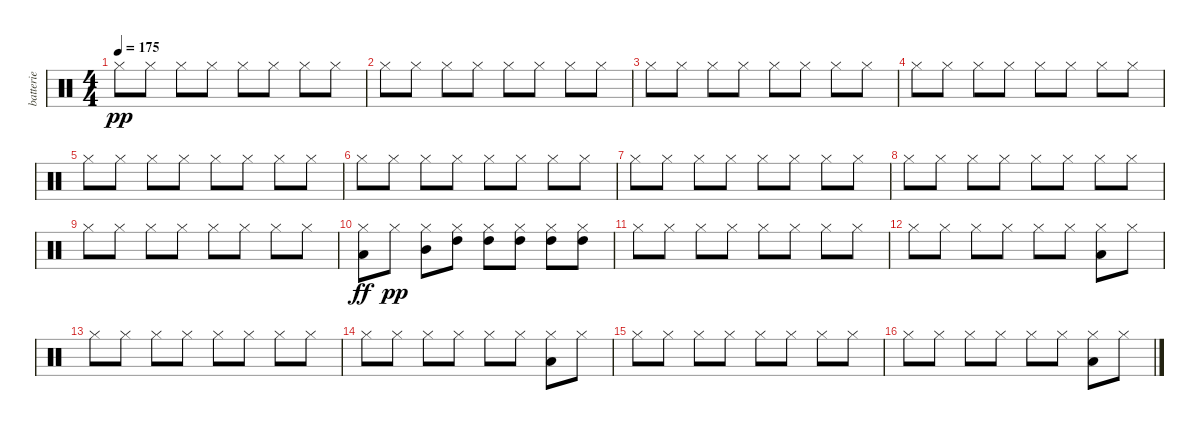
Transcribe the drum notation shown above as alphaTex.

\track ("batterie" "batterie") {instrument percussion}
\staff {score}
\articulation defaults
\ts (4 4)
\tempo 175
\clef neutral
\ks c "Hi-Hat (closed)".8{dy pp} "Hi-Hat (closed)".8 "Hi-Hat (closed)".8 "Hi-Hat (closed)".8 "Hi-Hat (closed)".8 "Hi-Hat (closed)".8 "Hi-Hat (closed)".8 "Hi-Hat (closed)".8
|
"Hi-Hat (closed)".8 "Hi-Hat (closed)".8 "Hi-Hat (closed)".8 "Hi-Hat (closed)".8 "Hi-Hat (closed)".8 "Hi-Hat (closed)".8 "Hi-Hat (closed)".8 "Hi-Hat (closed)".8 |
"Hi-Hat (closed)".8 "Hi-Hat (closed)".8 "Hi-Hat (closed)".8 "Hi-Hat (closed)".8 "Hi-Hat (closed)".8 "Hi-Hat (closed)".8 "Hi-Hat (closed)".8 "Hi-Hat (closed)".8 |
"Hi-Hat (closed)".8 "Hi-Hat (closed)".8 "Hi-Hat (closed)".8 "Hi-Hat (closed)".8 "Hi-Hat (closed)".8 "Hi-Hat (closed)".8 "Hi-Hat (closed)".8 "Hi-Hat (closed)".8 |
"Hi-Hat (closed)".8 "Hi-Hat (closed)".8 "Hi-Hat (closed)".8 "Hi-Hat (closed)".8 "Hi-Hat (closed)".8 "Hi-Hat (closed)".8 "Hi-Hat (closed)".8 "Hi-Hat (closed)".8 |
"Hi-Hat (closed)".8 "Hi-Hat (closed)".8 "Hi-Hat (closed)".8 "Hi-Hat (closed)".8 "Hi-Hat (closed)".8 "Hi-Hat (closed)".8 "Hi-Hat (closed)".8 "Hi-Hat (closed)".8 |
"Hi-Hat (closed)".8 "Hi-Hat (closed)".8 "Hi-Hat (closed)".8 "Hi-Hat (closed)".8 "Hi-Hat (closed)".8 "Hi-Hat (closed)".8 "Hi-Hat (closed)".8 "Hi-Hat (closed)".8 |
"Hi-Hat (closed)".8 "Hi-Hat (closed)".8 "Hi-Hat (closed)".8 "Hi-Hat (closed)".8 "Hi-Hat (closed)".8 "Hi-Hat (closed)".8 "Hi-Hat (closed)".8 "Hi-Hat (closed)".8 |
"Hi-Hat (closed)".8 "Hi-Hat (closed)".8 "Hi-Hat (closed)".8 "Hi-Hat (closed)".8 "Hi-Hat (closed)".8 "Hi-Hat (closed)".8 "Hi-Hat (closed)".8 "Hi-Hat (closed)".8 |
("Low Tom (hit)" "Hi-Hat (closed)").8{dy ff} "Hi-Hat (closed)".8{dy pp} ("Mid Tom (hit)" "Hi-Hat (closed)").8 ("High Tom (hit)" "Hi-Hat (closed)").8 ("High Tom (hit)" "Hi-Hat (closed)").8 ("High Tom (hit)" "Hi-Hat (closed)").8 ("High Tom (hit)" "Hi-Hat (closed)").8 ("High Tom (hit)" "Hi-Hat (closed)").8 |
"Hi-Hat (closed)".8 "Hi-Hat (closed)".8 "Hi-Hat (closed)".8 "Hi-Hat (closed)".8 "Hi-Hat (closed)".8 "Hi-Hat (closed)".8 "Hi-Hat (closed)".8 "Hi-Hat (closed)".8 |
"Hi-Hat (closed)".8 "Hi-Hat (closed)".8 "Hi-Hat (closed)".8 "Hi-Hat (closed)".8 "Hi-Hat (closed)".8 "Hi-Hat (closed)".8 ("Low Floor Tom (hit)" "Hi-Hat (closed)").8 "Hi-Hat (closed)".8 |
"Hi-Hat (closed)".8 "Hi-Hat (closed)".8 "Hi-Hat (closed)".8 "Hi-Hat (closed)".8 "Hi-Hat (closed)".8 "Hi-Hat (closed)".8 "Hi-Hat (closed)".8 "Hi-Hat (closed)".8 |
"Hi-Hat (closed)".8 "Hi-Hat (closed)".8 "Hi-Hat (closed)".8 "Hi-Hat (closed)".8 "Hi-Hat (closed)".8 "Hi-Hat (closed)".8 ("Low Floor Tom (hit)" "Hi-Hat (closed)").8 "Hi-Hat (closed)".8 |
"Hi-Hat (closed)".8 "Hi-Hat (closed)".8 "Hi-Hat (closed)".8 "Hi-Hat (closed)".8 "Hi-Hat (closed)".8 "Hi-Hat (closed)".8 "Hi-Hat (closed)".8 "Hi-Hat (closed)".8 |
"Hi-Hat (closed)".8 "Hi-Hat (closed)".8 "Hi-Hat (closed)".8 "Hi-Hat (closed)".8 "Hi-Hat (closed)".8 "Hi-Hat (closed)".8 ("Low Floor Tom (hit)" "Hi-Hat (closed)").8 "Hi-Hat (closed)".8
